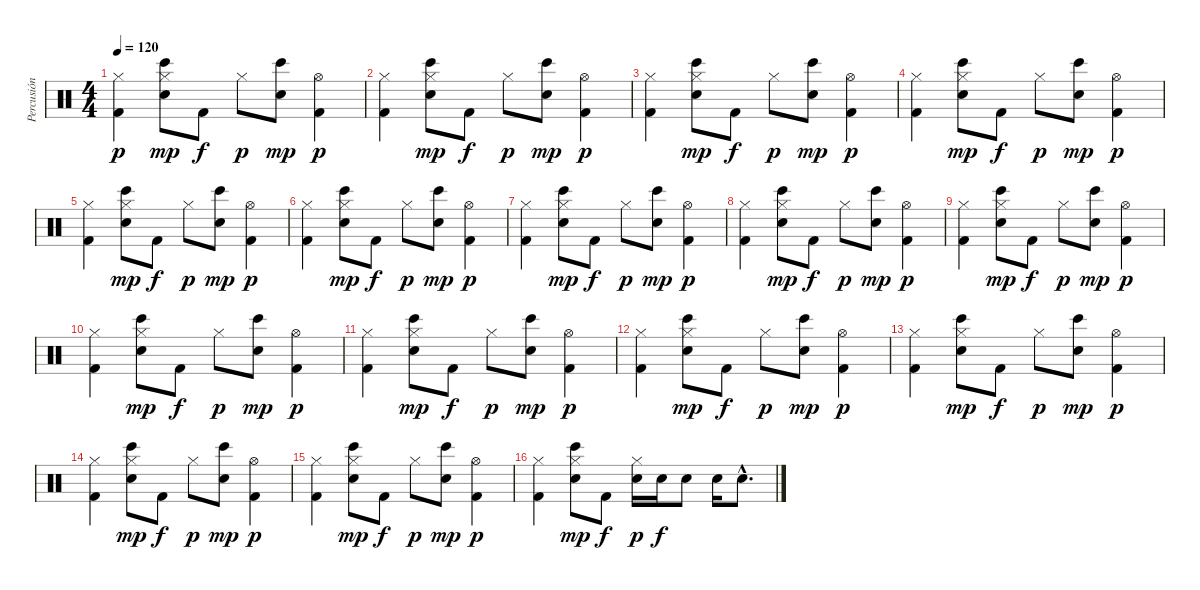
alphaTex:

\track ("Percusión" "Percusión") {instrument percussion}
\staff {score}
\articulation defaults
\ts (4 4)
\tempo 120
\clef neutral
\ks c
("Kick (hit) 2" "Hi-Hat (closed)").4{dy p} ("Electric Snare (hit)" "Hi-Hat (closed)" "Bongo High (hit)").8{dy mp} "Kick (hit) 2".8{dy f} "Hi-Hat (closed)".8{dy p} ("Electric Snare (hit)" "Bongo High (hit)").8{dy mp} ("Kick (hit) 2" "Hi-Hat (open)").4{dy p} |
("Kick (hit) 2" "Hi-Hat (closed)").4 ("Electric Snare (hit)" "Hi-Hat (closed)" "Bongo High (hit)").8{dy mp} "Kick (hit) 2".8{dy f} "Hi-Hat (closed)".8{dy p} ("Electric Snare (hit)" "Bongo High (hit)").8{dy mp} ("Kick (hit) 2" "Hi-Hat (open)").4{dy p} |
("Kick (hit) 2" "Hi-Hat (closed)").4 ("Electric Snare (hit)" "Hi-Hat (closed)" "Bongo High (hit)").8{dy mp} "Kick (hit) 2".8{dy f} "Hi-Hat (closed)".8{dy p} ("Electric Snare (hit)" "Bongo High (hit)").8{dy mp} ("Kick (hit) 2" "Hi-Hat (open)").4{dy p} |
("Kick (hit) 2" "Hi-Hat (closed)").4 ("Electric Snare (hit)" "Hi-Hat (closed)" "Bongo High (hit)").8{dy mp} "Kick (hit) 2".8{dy f} "Hi-Hat (closed)".8{dy p} ("Electric Snare (hit)" "Bongo High (hit)").8{dy mp} ("Kick (hit) 2" "Hi-Hat (open)").4{dy p} |
("Kick (hit) 2" "Hi-Hat (closed)").4 ("Electric Snare (hit)" "Hi-Hat (closed)" "Bongo High (hit)").8{dy mp} "Kick (hit) 2".8{dy f} "Hi-Hat (closed)".8{dy p} ("Electric Snare (hit)" "Bongo High (hit)").8{dy mp} ("Kick (hit) 2" "Hi-Hat (open)").4{dy p} |
("Kick (hit) 2" "Hi-Hat (closed)").4 ("Electric Snare (hit)" "Hi-Hat (closed)" "Bongo High (hit)").8{dy mp} "Kick (hit) 2".8{dy f} "Hi-Hat (closed)".8{dy p} ("Electric Snare (hit)" "Bongo High (hit)").8{dy mp} ("Kick (hit) 2" "Hi-Hat (open)").4{dy p} |
("Kick (hit) 2" "Hi-Hat (closed)").4 ("Electric Snare (hit)" "Hi-Hat (closed)" "Bongo High (hit)").8{dy mp} "Kick (hit) 2".8{dy f} "Hi-Hat (closed)".8{dy p} ("Electric Snare (hit)" "Bongo High (hit)").8{dy mp} ("Kick (hit) 2" "Hi-Hat (open)").4{dy p} |
("Kick (hit) 2" "Hi-Hat (closed)").4 ("Electric Snare (hit)" "Hi-Hat (closed)" "Bongo High (hit)").8{dy mp} "Kick (hit) 2".8{dy f} "Hi-Hat (closed)".8{dy p} ("Electric Snare (hit)" "Bongo High (hit)").8{dy mp} ("Kick (hit) 2" "Hi-Hat (open)").4{dy p} |
("Kick (hit) 2" "Hi-Hat (closed)").4 ("Electric Snare (hit)" "Hi-Hat (closed)" "Bongo High (hit)").8{dy mp} "Kick (hit) 2".8{dy f} "Hi-Hat (closed)".8{dy p} ("Electric Snare (hit)" "Bongo High (hit)").8{dy mp} ("Kick (hit) 2" "Hi-Hat (open)").4{dy p} |
("Kick (hit) 2" "Hi-Hat (closed)").4 ("Electric Snare (hit)" "Hi-Hat (closed)" "Bongo High (hit)").8{dy mp} "Kick (hit) 2".8{dy f} "Hi-Hat (closed)".8{dy p} ("Electric Snare (hit)" "Bongo High (hit)").8{dy mp} ("Kick (hit) 2" "Hi-Hat (open)").4{dy p} |
("Kick (hit) 2" "Hi-Hat (closed)").4 ("Electric Snare (hit)" "Hi-Hat (closed)" "Bongo High (hit)").8{dy mp} "Kick (hit) 2".8{dy f} "Hi-Hat (closed)".8{dy p} ("Electric Snare (hit)" "Bongo High (hit)").8{dy mp} ("Kick (hit) 2" "Hi-Hat (open)").4{dy p} |
("Kick (hit) 2" "Hi-Hat (closed)").4 ("Electric Snare (hit)" "Hi-Hat (closed)" "Bongo High (hit)").8{dy mp} "Kick (hit) 2".8{dy f} "Hi-Hat (closed)".8{dy p} ("Electric Snare (hit)" "Bongo High (hit)").8{dy mp} ("Kick (hit) 2" "Hi-Hat (open)").4{dy p} |
("Kick (hit) 2" "Hi-Hat (closed)").4 ("Electric Snare (hit)" "Hi-Hat (closed)" "Bongo High (hit)").8{dy mp} "Kick (hit) 2".8{dy f} "Hi-Hat (closed)".8{dy p} ("Electric Snare (hit)" "Bongo High (hit)").8{dy mp} ("Kick (hit) 2" "Hi-Hat (open)").4{dy p} |
("Kick (hit) 2" "Hi-Hat (closed)").4 ("Electric Snare (hit)" "Hi-Hat (closed)" "Bongo High (hit)").8{dy mp} "Kick (hit) 2".8{dy f} "Hi-Hat (closed)".8{dy p} ("Electric Snare (hit)" "Bongo High (hit)").8{dy mp} ("Kick (hit) 2" "Hi-Hat (open)").4{dy p} |
("Kick (hit) 2" "Hi-Hat (closed)").4 ("Electric Snare (hit)" "Hi-Hat (closed)" "Bongo High (hit)").8{dy mp} "Kick (hit) 2".8{dy f} "Hi-Hat (closed)".8{dy p} ("Electric Snare (hit)" "Bongo High (hit)").8{dy mp} ("Kick (hit) 2" "Hi-Hat (open)").4{dy p} |
("Kick (hit) 2" "Hi-Hat (closed)").4 ("Electric Snare (hit)" "Hi-Hat (closed)" "Bongo High (hit)").8{dy mp} "Kick (hit) 2".8{dy f} ("Snare (hit) 2" "Hi-Hat (closed)").16{dy p} "Snare (hit) 2".16{dy f} "Snare (hit) 2".8 "Snare (hit) 2".16 "Snare (hit) 2"{hac}.8{d}
